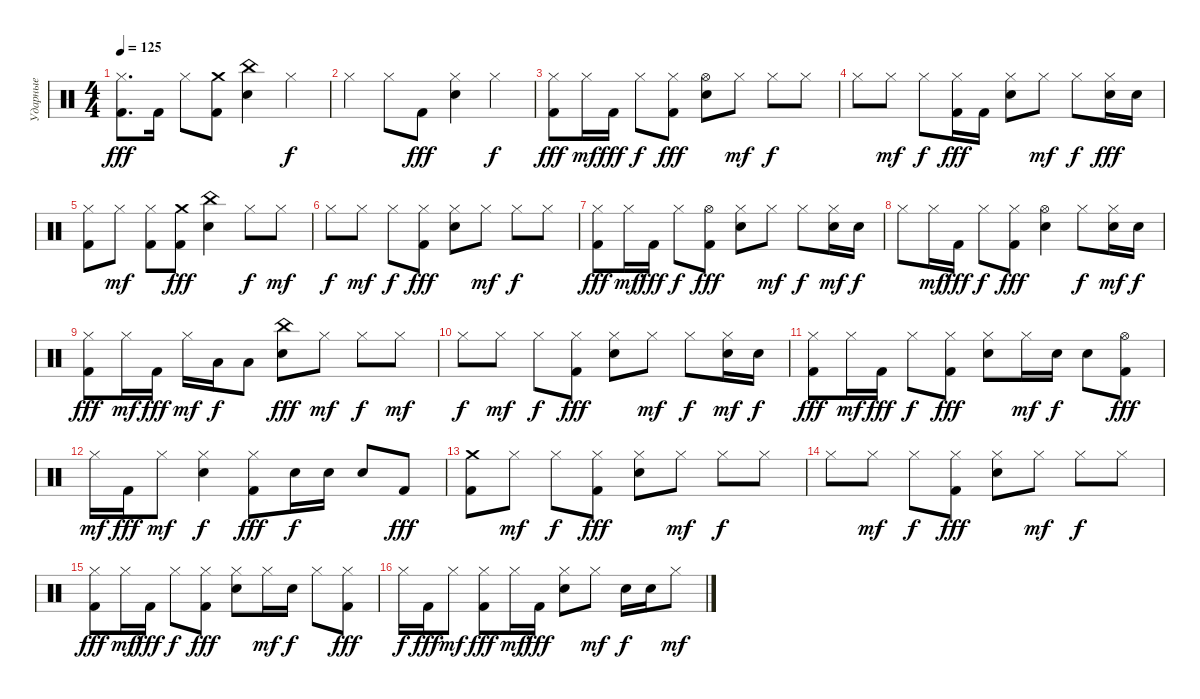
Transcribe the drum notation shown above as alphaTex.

\track ("Ударные" "Ударные") {instrument percussion}
\staff {score}
\articulation defaults
\ts (4 4)
\tempo 125
\clef neutral
\ks c
("Hi-Hat (closed)" "Kick (hit) 2").8{d dy fff} "Kick (hit) 2".16 "Hi-Hat (closed)".8 ("Crash medium (hit)" "Kick (hit) 2").8 ("China (hit)" "Electric Snare (hit)").4 "Hi-Hat (closed)".4{dy f} |
"Hi-Hat (closed)".4 "Hi-Hat (closed)".8 "Kick (hit) 2".8{dy fff} ("Hi-Hat (closed)" "Electric Snare (hit)").4 "Hi-Hat (closed)".4{dy f} |
("Hi-Hat (closed)" "Kick (hit) 2").8{dy fff} "Hi-Hat (closed)".16{dy mf} "Kick (hit) 2".16{dy fff} "Hi-Hat (closed)".8{dy f} ("Hi-Hat (closed)" "Kick (hit) 2").8{dy fff} ("Hi-Hat (open)" "Electric Snare (hit)").8 "Hi-Hat (closed)".8{dy mf} "Hi-Hat (closed)".8{dy f} "Hi-Hat (closed)".8 |
"Hi-Hat (closed)".8 "Hi-Hat (closed)".8{dy mf} "Hi-Hat (closed)".8{dy f} ("Hi-Hat (closed)" "Kick (hit) 2").16{dy fff} "Kick (hit) 2".16 ("Hi-Hat (closed)" "Electric Snare (hit)").8 "Hi-Hat (closed)".8{dy mf} "Hi-Hat (closed)".8{dy f} ("Hi-Hat (closed)" "Electric Snare (hit)").16{dy fff} "Electric Snare (hit)".16 |
("Hi-Hat (closed)" "Kick (hit) 2").8 "Hi-Hat (closed)".8{dy mf} ("Hi-Hat (closed)" "Kick (hit) 2").8 ("Crash medium (hit)" "Kick (hit) 2").8{dy fff} ("China (hit)" "Electric Snare (hit)").4 "Hi-Hat (closed)".8{dy f} "Hi-Hat (closed)".8{dy mf} |
"Hi-Hat (closed)".8{dy f} "Hi-Hat (closed)".8{dy mf} "Hi-Hat (closed)".8{dy f} ("Hi-Hat (closed)" "Kick (hit) 2").8{dy fff} ("Hi-Hat (closed)" "Electric Snare (hit)").8 "Hi-Hat (closed)".8{dy mf} "Hi-Hat (closed)".8{dy f} "Hi-Hat (closed)".8 |
("Hi-Hat (closed)" "Kick (hit) 2").8{dy fff} "Hi-Hat (closed)".16{dy mf} "Kick (hit) 2".16{dy fff} "Hi-Hat (closed)".8{dy f} ("Hi-Hat (open)" "Kick (hit) 2").8{dy fff} ("Hi-Hat (closed)" "Electric Snare (hit)").8 "Hi-Hat (closed)".8{dy mf} "Hi-Hat (closed)".8{dy f} ("Hi-Hat (closed)" "Electric Snare (hit)").16{dy mf} "Electric Snare (hit)".16{dy f} |
"Hi-Hat (closed)".8 "Hi-Hat (closed)".16{dy mf} "Kick (hit) 2".16{dy fff} "Hi-Hat (closed)".8{dy f} ("Hi-Hat (closed)" "Kick (hit) 2").8{dy fff} ("Hi-Hat (open)" "Electric Snare (hit)").4 "Hi-Hat (closed)".8{dy f} ("Hi-Hat (closed)" "Electric Snare (hit)").16{dy mf} "Electric Snare (hit)".16{dy f} |
("Hi-Hat (closed)" "Kick (hit) 2").8{dy fff} "Hi-Hat (closed)".16{dy mf} "Kick (hit) 2".16{dy fff} "Hi-Hat (closed)".16{dy mf} "Low Tom (hit)".16{dy f} "Low Floor Tom (hit)".8 ("China (hit)" "Electric Snare (hit)").8{dy fff} "Hi-Hat (closed)".8{dy mf} "Hi-Hat (closed)".8{dy f} "Hi-Hat (closed)".8{dy mf} |
"Hi-Hat (closed)".8{dy f} "Hi-Hat (closed)".8{dy mf} "Hi-Hat (closed)".8{dy f} ("Hi-Hat (closed)" "Kick (hit) 2").8{dy fff} ("Hi-Hat (closed)" "Electric Snare (hit)").8 "Hi-Hat (closed)".8{dy mf} "Hi-Hat (closed)".8{dy f} ("Hi-Hat (closed)" "Electric Snare (hit)").16{dy mf} "Electric Snare (hit)".16{dy f} |
("Hi-Hat (closed)" "Kick (hit) 2").8{dy fff} "Hi-Hat (closed)".16{dy mf} "Kick (hit) 2".16{dy fff} "Hi-Hat (closed)".8{dy f} ("Hi-Hat (closed)" "Kick (hit) 2").8{dy fff} ("Hi-Hat (closed)" "Electric Snare (hit)").8 "Hi-Hat (closed)".16{dy mf} "Electric Snare (hit)".16{dy f} "Electric Snare (hit)".8 ("Hi-Hat (open)" "Kick (hit) 2").8{dy fff} |
"Hi-Hat (closed)".16{dy mf} "Kick (hit) 2".16{dy fff} "Hi-Hat (closed)".8{dy mf} ("Hi-Hat (closed)" "Electric Snare (hit)").4{dy f} ("Hi-Hat (closed)" "Kick (hit) 2").8{dy fff} "Electric Snare (hit)".16{dy f} "Electric Snare (hit)".16 "Electric Snare (hit)".8 "Kick (hit) 2".8{dy fff} |
("Crash medium (hit)" "Kick (hit) 2").8 "Hi-Hat (closed)".8{dy mf} "Hi-Hat (closed)".8{dy f} ("Hi-Hat (closed)" "Kick (hit) 2").8{dy fff} ("Hi-Hat (closed)" "Electric Snare (hit)").8 "Hi-Hat (closed)".8{dy mf} "Hi-Hat (closed)".8{dy f} "Hi-Hat (closed)".8 |
"Hi-Hat (closed)".8 "Hi-Hat (closed)".8{dy mf} "Hi-Hat (closed)".8{dy f} ("Hi-Hat (closed)" "Kick (hit) 2").8{dy fff} ("Hi-Hat (closed)" "Electric Snare (hit)").8 "Hi-Hat (closed)".8{dy mf} "Hi-Hat (closed)".8{dy f} "Hi-Hat (closed)".8 |
("Hi-Hat (closed)" "Kick (hit) 2").8{dy fff} "Hi-Hat (closed)".16{dy mf} "Kick (hit) 2".16{dy fff} "Hi-Hat (closed)".8{dy f} ("Hi-Hat (closed)" "Kick (hit) 2").8{dy fff} ("Hi-Hat (closed)" "Electric Snare (hit)").8 "Hi-Hat (closed)".16{dy mf} "Electric Snare (hit)".16{dy f} "Hi-Hat (closed)".8 ("Hi-Hat (closed)" "Kick (hit) 2").8{dy fff} |
"Hi-Hat (closed)".16{dy f} "Kick (hit) 2".16{dy fff} "Hi-Hat (closed)".8{dy mf} ("Hi-Hat (closed)" "Kick (hit) 2").8{dy fff} "Hi-Hat (closed)".16{dy mf} "Kick (hit) 2".16{dy fff} ("Hi-Hat (closed)" "Electric Snare (hit)").8 "Hi-Hat (closed)".8{dy mf} "Electric Snare (hit)".16{dy f} "Electric Snare (hit)".16 "Hi-Hat (closed)".8{dy mf}
